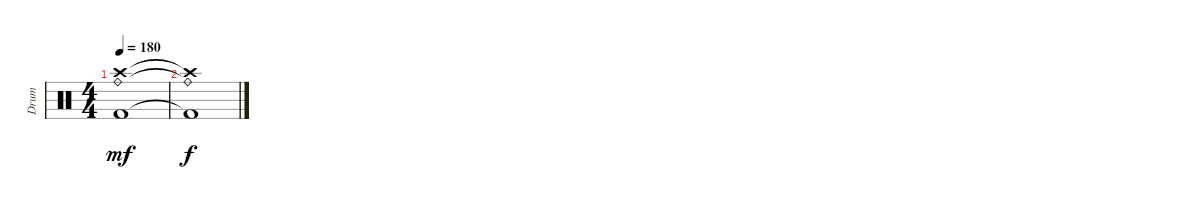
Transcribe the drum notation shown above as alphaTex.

\track ("Drum" "Drum") {instrument percussion}
\staff {score}
\articulation defaults
\ts (4 4)
\tempo 180
\clef neutral
\ks c
("Ride (bell)" "Crash high (hit)" "Kick (hit) 2").1{dy mf} |
("Ride (bell)"{t} "Crash high (hit)"{t} "Kick (hit) 2"{t}).1{dy f}
